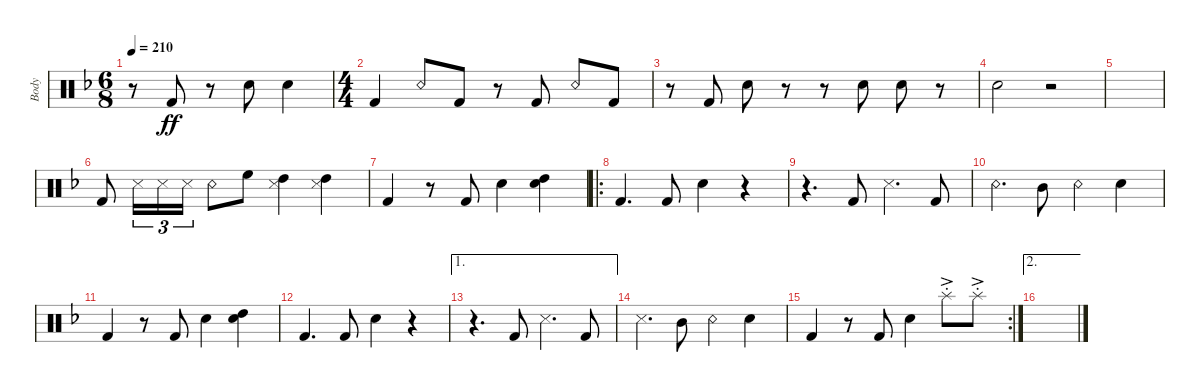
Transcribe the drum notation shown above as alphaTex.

\track ("Body" "Body") {instrument percussion}
\staff {score}
\articulation defaults
\ts (6 8)
\tempo 210
\clef neutral
\ks dminor
r.8{dy ff} "Kick (hit) 2".8 r.8 "Snare (hit) 2".8 "Snare (hit) 2".4 |
\ts (4 4)
"Kick (hit) 2".4 "Snare (rim shot)".8 "Kick (hit) 2".8 r.8 "Kick (hit) 2".8 "Snare (rim shot)".8 "Kick (hit) 2".8 |
r.8 "Kick (hit) 2".8 "Snare (hit) 2".8 r.8 r.8 "Snare (hit) 2".8 "Snare (hit) 2".8 r.8 |
"Snare (hit) 2".2 r.2 |
|
"Kick (hit) 2".8 "Snare (side stick) 3".16{tu (3 2)} "Snare (side stick) 3".16{tu (3 2)} "Snare (side stick) 3".16{tu (3 2)} "Snare (rim shot)".8 "High Floor Tom (hit)".8 ("High Tom (hit)" "Snare (side stick) 3").4 ("High Tom (hit)" "Snare (side stick) 3").4 |
"Kick (hit) 2".4 r.8 "Kick (hit) 2".8 "Snare (hit) 2".4 ("High Tom (hit)" "Snare (hit) 2").4 |
\ro "Kick (hit) 2".4{d} "Kick (hit) 2".8 "Snare (hit) 2".4
r.4 |
r.4{d} "Kick (hit) 2".8 "Snare (side stick) 3".4{d} "Kick (hit) 2".8 |
"Snare (rim shot)".4{d} "Mid Tom (hit)".8 "Snare (rim shot)".4 "Snare (hit) 2".4 |
"Kick (hit) 2".4 r.8 "Kick (hit) 2".8 "Snare (hit) 2".4 ("High Tom (hit)" "Snare (hit) 2").4 |
"Kick (hit) 2".4{d} "Kick (hit) 2".8 "Snare (hit) 2".4 r.4 |
\ae 1
r.4{d} "Kick (hit) 2".8 "Snare (side stick) 3".4{d} "Kick (hit) 2".8 |
"Snare (side stick) 3".4{d} "Mid Tom (hit)".8 "Snare (rim shot)".4 "Snare (hit) 2".4 |
\rc 2 "Kick (hit) 2".4
r.8 "Kick (hit) 2".8 "Snare (hit) 2".4 "Splash (hit)"{ac st}.8 "Splash (hit)"{ac st}.8 |
\ae 2
